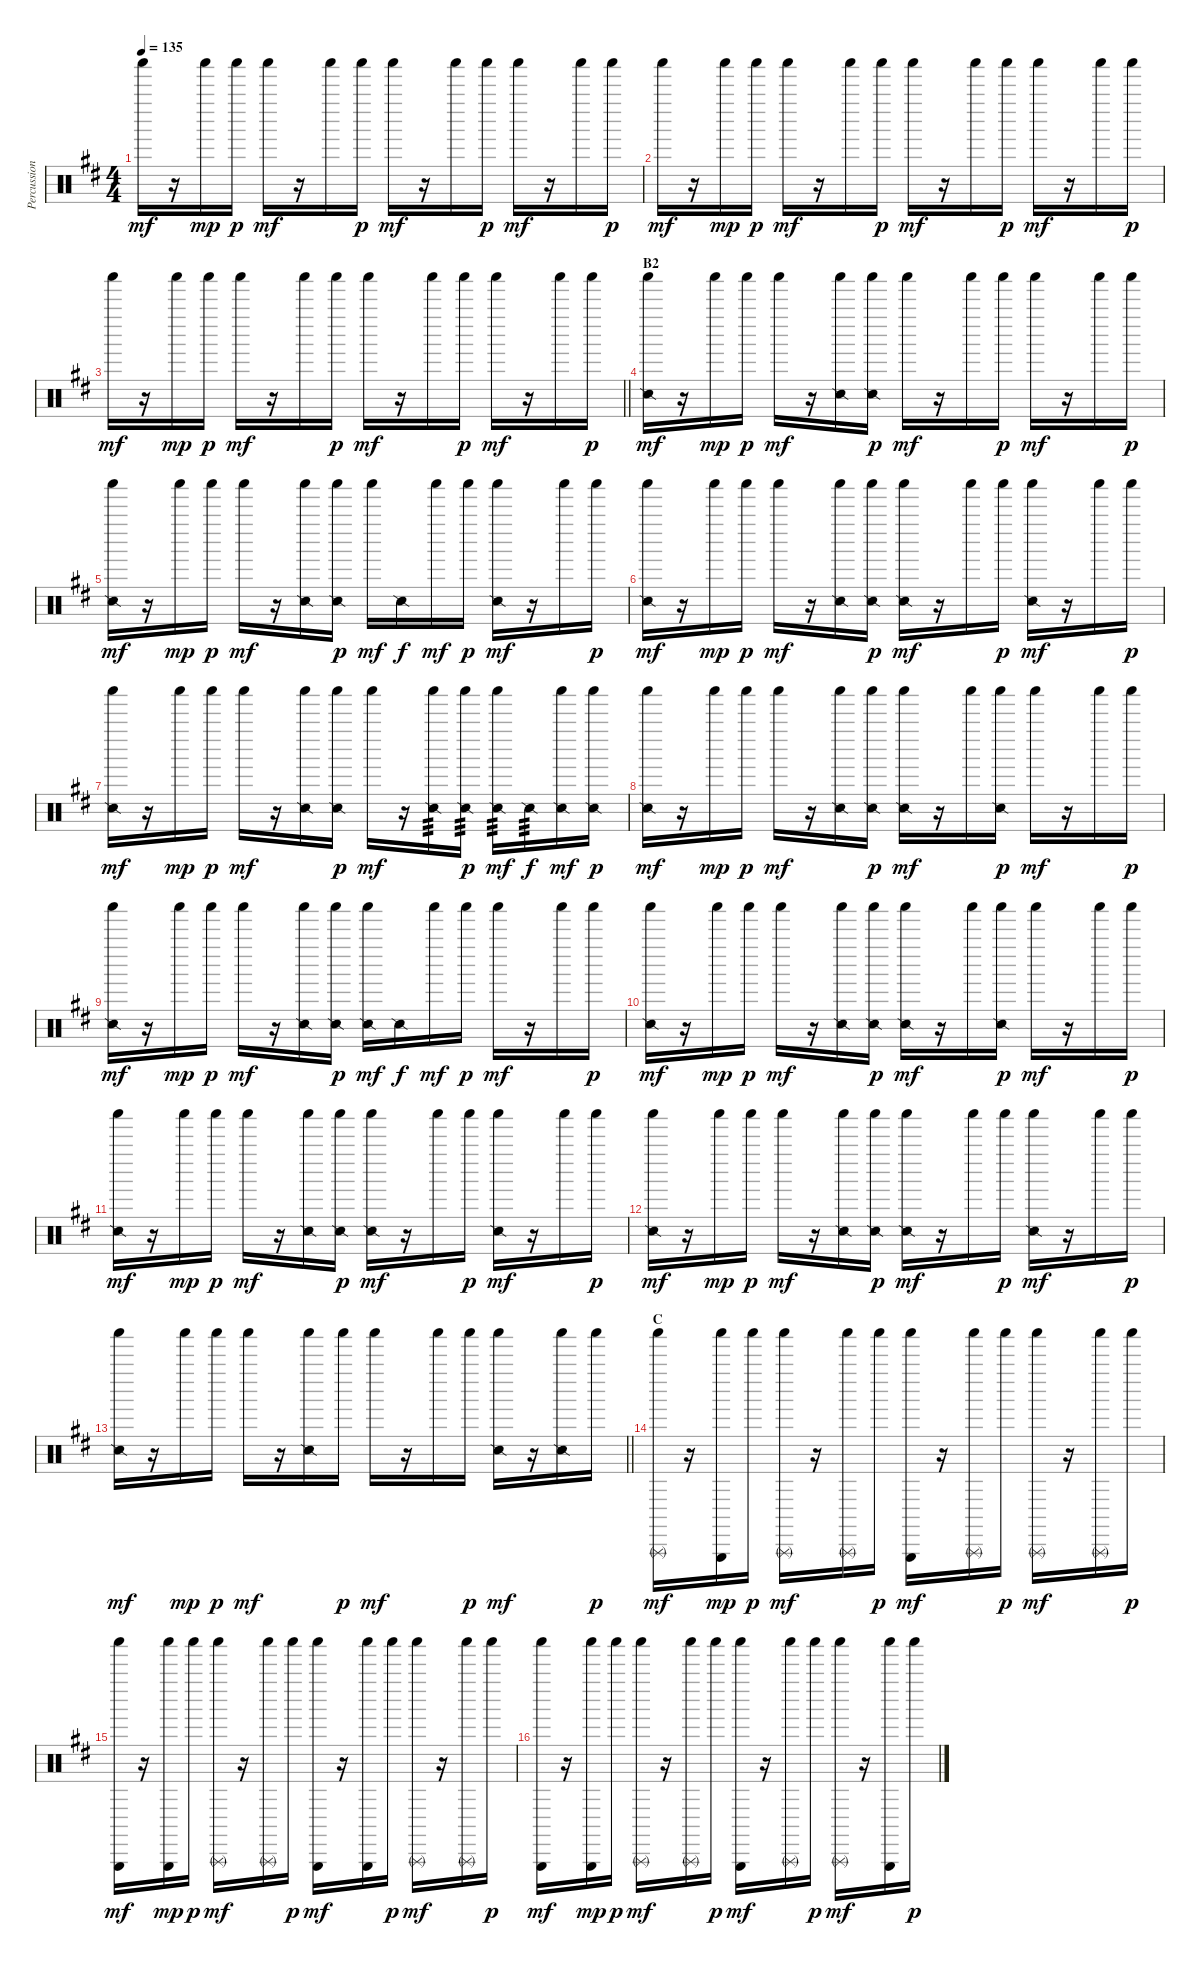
\track ("Percussion" "Percussion") {instrument percussion}
\staff {score}
\articulation defaults
\ts (4 4)
\tempo 135
\clef neutral
\ks d "Shaker (hit)".16{dy mf}
r.16 "Shaker (hit)".16{dy mp} "Shaker (hit)".16{dy p} "Shaker (hit)".16{dy mf} r.16 "Shaker (hit)".16 "Shaker (hit)".16{dy p} "Shaker (hit)".16{dy mf} r.16 "Shaker (hit)".16 "Shaker (hit)".16{dy p} "Shaker (hit)".16{dy mf} r.16 "Shaker (hit)".16 "Shaker (hit)".16{dy p} |
"Shaker (hit)".16{dy mf} r.16 "Shaker (hit)".16{dy mp} "Shaker (hit)".16{dy p} "Shaker (hit)".16{dy mf} r.16 "Shaker (hit)".16 "Shaker (hit)".16{dy p} "Shaker (hit)".16{dy mf} r.16 "Shaker (hit)".16 "Shaker (hit)".16{dy p} "Shaker (hit)".16{dy mf} r.16 "Shaker (hit)".16 "Shaker (hit)".16{dy p} |
\barLineRight lightlight "Shaker (hit)".16{dy mf}
r.16 "Shaker (hit)".16{dy mp} "Shaker (hit)".16{dy p} "Shaker (hit)".16{dy mf} r.16 "Shaker (hit)".16 "Shaker (hit)".16{dy p} "Shaker (hit)".16{dy mf} r.16 "Shaker (hit)".16 "Shaker (hit)".16{dy p} "Shaker (hit)".16{dy mf} r.16 "Shaker (hit)".16 "Shaker (hit)".16{dy p} |
\section ("" "B2")
("Snare (side stick) 2" "Shaker (hit)").16{dy mf} r.16 "Shaker (hit)".16{dy mp} "Shaker (hit)".16{dy p} "Shaker (hit)".16{dy mf} r.16 ("Snare (side stick) 2" "Shaker (hit)").16 ("Snare (side stick) 2" "Shaker (hit)").16{dy p} "Shaker (hit)".16{dy mf} r.16 "Shaker (hit)".16 "Shaker (hit)".16{dy p} "Shaker (hit)".16{dy mf} r.16 "Shaker (hit)".16 "Shaker (hit)".16{dy p} |
("Snare (side stick) 2" "Shaker (hit)").16{dy mf} r.16 "Shaker (hit)".16{dy mp} "Shaker (hit)".16{dy p} "Shaker (hit)".16{dy mf} r.16 ("Snare (side stick) 2" "Shaker (hit)").16 ("Snare (side stick) 2" "Shaker (hit)").16{dy p} "Shaker (hit)".16{dy mf} "Snare (side stick) 2".16{dy f} "Shaker (hit)".16{dy mf} "Shaker (hit)".16{dy p} ("Snare (side stick) 2" "Shaker (hit)").16{dy mf} r.16 "Shaker (hit)".16 "Shaker (hit)".16{dy p} |
("Snare (side stick) 2" "Shaker (hit)").16{dy mf} r.16 "Shaker (hit)".16{dy mp} "Shaker (hit)".16{dy p} "Shaker (hit)".16{dy mf} r.16 ("Snare (side stick) 2" "Shaker (hit)").16 ("Snare (side stick) 2" "Shaker (hit)").16{dy p} ("Snare (side stick) 2" "Shaker (hit)").16{dy mf} r.16 "Shaker (hit)".16 "Shaker (hit)".16{dy p} ("Snare (side stick) 2" "Shaker (hit)").16{dy mf} r.16 "Shaker (hit)".16 "Shaker (hit)".16{dy p} |
("Snare (side stick) 2" "Shaker (hit)").16{dy mf} r.16 "Shaker (hit)".16{dy mp} "Shaker (hit)".16{dy p} "Shaker (hit)".16{dy mf} r.16 ("Snare (side stick) 2" "Shaker (hit)").16 ("Snare (side stick) 2" "Shaker (hit)").16{dy p} "Shaker (hit)".16{dy mf} r.16 ("Snare (side stick) 2" "Shaker (hit)").16{tp 3} ("Snare (side stick) 2" "Shaker (hit)").16{tp 3 dy p} ("Snare (side stick) 2" "Shaker (hit)").16{tp 3 dy mf} "Snare (side stick) 2".16{tp 3 dy f} ("Snare (side stick) 2" "Shaker (hit)").16{dy mf} ("Snare (side stick) 2" "Shaker (hit)").16{dy p} |
("Snare (side stick) 2" "Shaker (hit)").16{dy mf} r.16 "Shaker (hit)".16{dy mp} "Shaker (hit)".16{dy p} "Shaker (hit)".16{dy mf} r.16 ("Snare (side stick) 2" "Shaker (hit)").16 ("Snare (side stick) 2" "Shaker (hit)").16{dy p} ("Snare (side stick) 2" "Shaker (hit)").16{dy mf} r.16 "Shaker (hit)".16 ("Snare (side stick) 2" "Shaker (hit)").16{dy p} "Shaker (hit)".16{dy mf} r.16 "Shaker (hit)".16 "Shaker (hit)".16{dy p} |
("Snare (side stick) 2" "Shaker (hit)").16{dy mf} r.16 "Shaker (hit)".16{dy mp} "Shaker (hit)".16{dy p} "Shaker (hit)".16{dy mf} r.16 ("Snare (side stick) 2" "Shaker (hit)").16 ("Snare (side stick) 2" "Shaker (hit)").16{dy p} ("Snare (side stick) 2" "Shaker (hit)").16{dy mf} "Snare (side stick) 2".16{dy f} "Shaker (hit)".16{dy mf} "Shaker (hit)".16{dy p} "Shaker (hit)".16{dy mf} r.16 "Shaker (hit)".16 "Shaker (hit)".16{dy p} |
("Snare (side stick) 2" "Shaker (hit)").16{dy mf} r.16 "Shaker (hit)".16{dy mp} "Shaker (hit)".16{dy p} "Shaker (hit)".16{dy mf} r.16 ("Snare (side stick) 2" "Shaker (hit)").16 ("Snare (side stick) 2" "Shaker (hit)").16{dy p} ("Snare (side stick) 2" "Shaker (hit)").16{dy mf} r.16 "Shaker (hit)".16 ("Snare (side stick) 2" "Shaker (hit)").16{dy p} "Shaker (hit)".16{dy mf} r.16 "Shaker (hit)".16 "Shaker (hit)".16{dy p} |
("Snare (side stick) 2" "Shaker (hit)").16{dy mf} r.16 "Shaker (hit)".16{dy mp} "Shaker (hit)".16{dy p} "Shaker (hit)".16{dy mf} r.16 ("Snare (side stick) 2" "Shaker (hit)").16 ("Snare (side stick) 2" "Shaker (hit)").16{dy p} ("Snare (side stick) 2" "Shaker (hit)").16{dy mf} r.16 "Shaker (hit)".16 "Shaker (hit)".16{dy p} ("Snare (side stick) 2" "Shaker (hit)").16{dy mf} r.16 "Shaker (hit)".16 "Shaker (hit)".16{dy p} |
("Snare (side stick) 2" "Shaker (hit)").16{dy mf} r.16 "Shaker (hit)".16{dy mp} "Shaker (hit)".16{dy p} "Shaker (hit)".16{dy mf} r.16 ("Snare (side stick) 2" "Shaker (hit)").16 ("Snare (side stick) 2" "Shaker (hit)").16{dy p} ("Snare (side stick) 2" "Shaker (hit)").16{dy mf} r.16 "Shaker (hit)".16 "Shaker (hit)".16{dy p} ("Snare (side stick) 2" "Shaker (hit)").16{dy mf} r.16 "Shaker (hit)".16 "Shaker (hit)".16{dy p} |
\barLineRight lightlight
("Snare (side stick) 2" "Shaker (hit)").16{dy mf} r.16 "Shaker (hit)".16{dy mp} "Shaker (hit)".16{dy p} "Shaker (hit)".16{dy mf} r.16 ("Snare (side stick) 2" "Shaker (hit)").16 "Shaker (hit)".16{dy p} "Shaker (hit)".16{dy mf} r.16 "Shaker (hit)".16 "Shaker (hit)".16{dy p} ("Snare (side stick) 2" "Shaker (hit)").16{dy mf} r.16 ("Snare (side stick) 2" "Shaker (hit)").16 "Shaker (hit)".16{dy p} |
\section ("" "C")
("Triangle (rnute)" "Shaker (hit)").16{dy mf} r.16 ("Triangle (hit)" "Shaker (hit)").16{dy mp} "Shaker (hit)".16{dy p} ("Triangle (rnute)" "Shaker (hit)").16{dy mf} r.16 ("Triangle (rnute)" "Shaker (hit)").16 "Shaker (hit)".16{dy p} ("Triangle (hit)" "Shaker (hit)").16{dy mf} r.16 ("Triangle (rnute)" "Shaker (hit)").16 "Shaker (hit)".16{dy p} ("Triangle (rnute)" "Shaker (hit)").16{dy mf} r.16 ("Triangle (rnute)" "Shaker (hit)").16 "Shaker (hit)".16{dy p} |
("Triangle (hit)" "Shaker (hit)").16{dy mf} r.16 ("Triangle (hit)" "Shaker (hit)").16{dy mp} "Shaker (hit)".16{dy p} ("Triangle (rnute)" "Shaker (hit)").16{dy mf} r.16 ("Triangle (rnute)" "Shaker (hit)").16 "Shaker (hit)".16{dy p} ("Triangle (hit)" "Shaker (hit)").16{dy mf} r.16 ("Triangle (hit)" "Shaker (hit)").16 "Shaker (hit)".16{dy p} ("Triangle (rnute)" "Shaker (hit)").16{dy mf} r.16 ("Triangle (rnute)" "Shaker (hit)").16 "Shaker (hit)".16{dy p} |
("Triangle (hit)" "Shaker (hit)").16{dy mf} r.16 ("Triangle (hit)" "Shaker (hit)").16{dy mp} "Shaker (hit)".16{dy p} ("Triangle (rnute)" "Shaker (hit)").16{dy mf} r.16 ("Triangle (rnute)" "Shaker (hit)").16 "Shaker (hit)".16{dy p} ("Triangle (hit)" "Shaker (hit)").16{dy mf} r.16 ("Triangle (rnute)" "Shaker (hit)").16 "Shaker (hit)".16{dy p} ("Triangle (rnute)" "Shaker (hit)").16{dy mf} r.16 ("Triangle (hit)" "Shaker (hit)").16 "Shaker (hit)".16{dy p}
